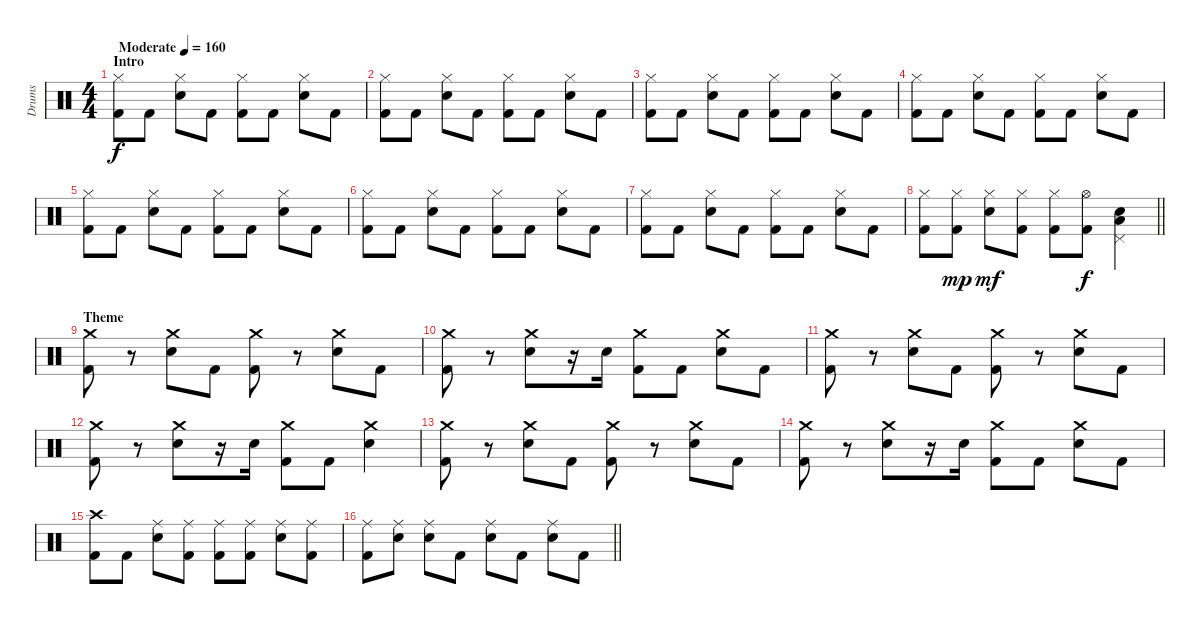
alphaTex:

\track ("Drums" "Drums") {instrument percussion}
\staff {score}
\articulation defaults
\ts (4 4)
\section ("" "Intro")
\tempo (160 "Moderate")
\clef neutral
\ks c
("Hi-Hat (closed)" "Kick (hit) 2").8{dy f} "Kick (hit) 2".8 ("Hi-Hat (closed)" "Electric Snare (hit)").8 "Kick (hit) 2".8 ("Hi-Hat (closed)" "Kick (hit) 2").8 "Kick (hit) 2".8 ("Hi-Hat (closed)" "Electric Snare (hit)").8 "Kick (hit) 2".8 |
("Hi-Hat (closed)" "Kick (hit) 2").8 "Kick (hit) 2".8 ("Hi-Hat (closed)" "Electric Snare (hit)").8 "Kick (hit) 2".8 ("Hi-Hat (closed)" "Kick (hit) 2").8 "Kick (hit) 2".8 ("Hi-Hat (closed)" "Electric Snare (hit)").8 "Kick (hit) 2".8 |
("Hi-Hat (closed)" "Kick (hit) 2").8 "Kick (hit) 2".8 ("Hi-Hat (closed)" "Electric Snare (hit)").8 "Kick (hit) 2".8 ("Hi-Hat (closed)" "Kick (hit) 2").8 "Kick (hit) 2".8 ("Hi-Hat (closed)" "Electric Snare (hit)").8 "Kick (hit) 2".8 |
("Hi-Hat (closed)" "Kick (hit) 2").8 "Kick (hit) 2".8 ("Hi-Hat (closed)" "Electric Snare (hit)").8 "Kick (hit) 2".8 ("Hi-Hat (closed)" "Kick (hit) 2").8 "Kick (hit) 2".8 ("Hi-Hat (closed)" "Electric Snare (hit)").8 "Kick (hit) 2".8 |
("Hi-Hat (closed)" "Kick (hit) 2").8 "Kick (hit) 2".8 ("Hi-Hat (closed)" "Electric Snare (hit)").8 "Kick (hit) 2".8 ("Hi-Hat (closed)" "Kick (hit) 2").8 "Kick (hit) 2".8 ("Hi-Hat (closed)" "Electric Snare (hit)").8 "Kick (hit) 2".8 |
("Hi-Hat (closed)" "Kick (hit) 2").8 "Kick (hit) 2".8 ("Hi-Hat (closed)" "Electric Snare (hit)").8 "Kick (hit) 2".8 ("Hi-Hat (closed)" "Kick (hit) 2").8 "Kick (hit) 2".8 ("Hi-Hat (closed)" "Electric Snare (hit)").8 "Kick (hit) 2".8 |
("Hi-Hat (closed)" "Kick (hit) 2").8 "Kick (hit) 2".8 ("Hi-Hat (closed)" "Electric Snare (hit)").8 "Kick (hit) 2".8 ("Hi-Hat (closed)" "Kick (hit) 2").8 "Kick (hit) 2".8 ("Hi-Hat (closed)" "Electric Snare (hit)").8 "Kick (hit) 2".8 |
\barLineRight lightlight
("Hi-Hat (closed)" "Kick (hit) 2").8 ("Hi-Hat (closed)" "Kick (hit) 2").8{dy mp} ("Hi-Hat (closed)" "Electric Snare (hit)").8{dy mf} ("Hi-Hat (closed)" "Kick (hit) 2").8 ("Hi-Hat (closed)" "Kick (hit) 2").8 ("Hi-Hat (open)" "Kick (hit) 2").8{dy f} ("Pedal Hi-Hat (hit)" "Low Floor Tom (hit)" "Electric Snare (hit)").4 |
\section ("" "Theme")
("Crash medium (hit)" "Kick (hit) 2").8 r.8 ("Crash medium (hit)" "Electric Snare (hit)").8 "Kick (hit) 2".8 ("Crash medium (hit)" "Kick (hit) 2").8 r.8 ("Crash medium (hit)" "Electric Snare (hit)").8 "Kick (hit) 2".8 |
("Crash medium (hit)" "Kick (hit) 2").8 r.8 ("Crash medium (hit)" "Electric Snare (hit)").8 r.16 "Electric Snare (hit)".16 ("Crash medium (hit)" "Kick (hit) 2").8 "Kick (hit) 2".8 ("Crash medium (hit)" "Electric Snare (hit)").8 "Kick (hit) 2".8 |
("Crash medium (hit)" "Kick (hit) 2").8 r.8 ("Crash medium (hit)" "Electric Snare (hit)").8 "Kick (hit) 2".8 ("Crash medium (hit)" "Kick (hit) 2").8 r.8 ("Crash medium (hit)" "Electric Snare (hit)").8 "Kick (hit) 2".8 |
("Crash medium (hit)" "Kick (hit) 2").8 r.8 ("Crash medium (hit)" "Electric Snare (hit)").8 r.16 "Electric Snare (hit)".16 ("Crash medium (hit)" "Kick (hit) 2").8 "Kick (hit) 2".8 ("Crash medium (hit)" "Electric Snare (hit)").4 |
("Crash medium (hit)" "Kick (hit) 2").8 r.8 ("Crash medium (hit)" "Electric Snare (hit)").8 "Kick (hit) 2".8 ("Crash medium (hit)" "Kick (hit) 2").8 r.8 ("Crash medium (hit)" "Electric Snare (hit)").8 "Kick (hit) 2".8 |
("Crash medium (hit)" "Kick (hit) 2").8 r.8 ("Crash medium (hit)" "Electric Snare (hit)").8 r.16 "Electric Snare (hit)".16 ("Crash medium (hit)" "Kick (hit) 2").8 "Kick (hit) 2".8 ("Crash medium (hit)" "Electric Snare (hit)").8 "Kick (hit) 2".8 |
("Crash high (hit)" "Kick (hit) 2").8 "Kick (hit) 2".8 ("Ride (middle)" "Electric Snare (hit)").8 ("Ride (middle)" "Kick (hit) 2").8 ("Ride (middle)" "Kick (hit) 2").8 ("Ride (middle)" "Kick (hit) 2").8 ("Ride (middle)" "Electric Snare (hit)").8 ("Ride (middle)" "Kick (hit) 2").8 |
\barLineRight lightlight
("Ride (middle)" "Kick (hit) 2").8 ("Ride (middle)" "Electric Snare (hit)").8 ("Ride (middle)" "Electric Snare (hit)").8 "Kick (hit) 2".8 ("Ride (middle)" "Electric Snare (hit)").8 "Kick (hit) 2".8 ("Ride (middle)" "Electric Snare (hit)").8 "Kick (hit) 2".8
